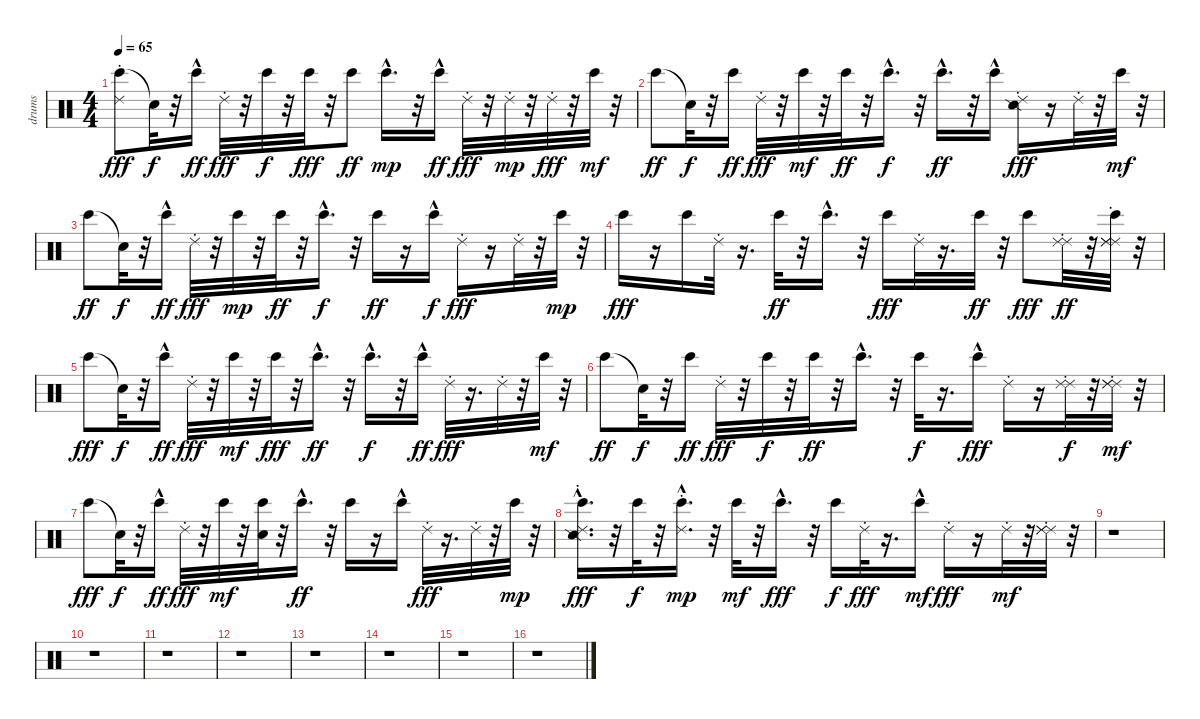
\track ("drums" "drums") {instrument percussion}
\staff {score}
\articulation defaults
\ts (4 4)
\tempo 65
\clef neutral
\ks c
("Bongo High (hit)" "Ride (choke) 2").8{dy fff} "Snare (hit)"{t}.32{dy f} r.32 "Bongo High (hit)"{hac}.16{dy ff} "Ride (choke) 2".32{dy fff} r.32 "Bongo High (hit)".32{dy f} r.32 "Bongo High (hit)".32{dy fff} r.32 "Bongo High (hit)".8{dy ff} "Bongo High (hit)"{hac}.16{d dy mp} r.32 "Bongo High (hit)"{hac}.16{dy ff} "Ride (choke) 2".32{dy fff} r.32 "Ride (choke) 2".32{dy mp} r.32 "Ride (choke) 2".32{dy fff} r.32 "Bongo High (hit)".32{dy mf} r.32 |
"Bongo High (hit)".8{dy ff} "Snare (hit)"{t}.32{dy f} r.32 "Bongo High (hit)".16{dy ff} "Ride (choke) 2".32{dy fff} r.32 "Bongo High (hit)".32{dy mf} r.32 "Bongo High (hit)".32{dy ff} r.32 "Bongo High (hit)"{hac}.16{d dy f} r.32 "Bongo High (hit)"{hac}.16{d dy ff} r.32 "Bongo High (hit)"{hac}.16 ("Snare (side stick) 2" "Ride (choke) 2").16{dy fff} r.16 "Ride (choke) 2".32 r.32 "Bongo High (hit)".32{dy mf} r.32 |
"Bongo High (hit)".8{dy ff} "Snare (hit)"{t}.32{dy f} r.32 "Bongo High (hit)"{hac}.16{dy ff} "Ride (choke) 2".32{dy fff} r.32 "Bongo High (hit)".32{dy mp} r.32 "Bongo High (hit)".32{dy ff} r.32 "Bongo High (hit)"{hac}.16{d dy f} r.32 "Bongo High (hit)".16{dy ff} r.16 "Bongo High (hit)"{hac}.16{dy f} "Ride (choke) 2".16{dy fff} r.16 "Ride (choke) 2".32 r.32 "Bongo High (hit)".32{dy mp} r.32 |
"Bongo High (hit)".16{dy fff} r.16 "Bongo High (hit)".16 "Ride (choke) 2".32 r.16{d} "Bongo High (hit)".32{dy ff} r.32 "Bongo High (hit)"{hac}.16{d} r.32 "Bongo High (hit)".16{dy fff} "Ride (choke) 2".32 r.16{d} "Bongo High (hit)".32{dy ff} r.32 "Bongo High (hit)".8{dy fff} ("Ride (choke) 2" "Ride (choke) 2").32{dy ff} r.32 ("Bongo High (hit)" "Ride (choke) 2" "Ride (choke) 2" "Ride (choke) 2").32 r.32 |
"Bongo High (hit)".8{dy fff} "Snare (hit)"{t}.32{dy f} r.32 "Bongo High (hit)"{hac}.16{dy ff} "Ride (choke) 2".32{dy fff} r.32 "Bongo High (hit)".32{dy mf} r.32 "Bongo High (hit)".32{dy fff} r.32 "Bongo High (hit)"{hac}.16{d dy ff} r.32 "Bongo High (hit)"{hac}.16{d dy f} r.32 "Bongo High (hit)"{hac}.16{dy ff} "Ride (choke) 2".32{dy fff} r.16{d} "Ride (choke) 2".32 r.32 "Bongo High (hit)".32{dy mf} r.32 |
"Bongo High (hit)".8{dy ff} "Snare (hit)"{t}.32{dy f} r.32 "Bongo High (hit)".16{dy ff} "Ride (choke) 2".32{dy fff} r.32 "Bongo High (hit)".32{dy f} r.32 "Bongo High (hit)".32{dy ff} r.32 "Bongo High (hit)"{hac}.16{d} r.32 "Bongo High (hit)".32{dy f} r.16{d} "Bongo High (hit)"{hac}.16{dy fff} "Ride (choke) 2".16 r.16 ("Ride (choke) 2" "Ride (choke) 2").32{dy f} r.32 ("Ride (choke) 2" "Ride (choke) 2" "Ride (choke) 2").32{dy mf} r.32 |
"Bongo High (hit)".8{dy fff} "Snare (hit)"{t}.32{dy f} r.32 "Bongo High (hit)"{hac}.16{dy ff} "Ride (choke) 2".32{dy fff} r.32 "Bongo High (hit)".32{dy mf} r.32 ("Snare (hit)" "Bongo High (hit)").32 r.32 "Bongo High (hit)"{hac}.16{d dy ff} r.32 "Bongo High (hit)".16 r.16 "Bongo High (hit)"{hac}.16 "Ride (choke) 2".32{dy fff} r.16{d} "Ride (choke) 2".32 r.32 "Bongo High (hit)".32{dy mp} r.32 |
("Snare (side stick) 2" "Bongo High (hit)"{hac} "Ride (choke) 2"{hac}).16{d dy fff} r.32 "Bongo High (hit)".32{dy f} r.32 ("Ride (choke) 2" "Bongo High (hit)"{hac}).16{d dy mp} r.32 "Bongo High (hit)".32{dy mf} r.32 "Bongo High (hit)"{hac}.16{d dy fff} r.32 "Bongo High (hit)".16{dy f} "Ride (choke) 2".32{dy fff} r.16{d} "Bongo High (hit)"{hac}.16{dy mf} "Ride (choke) 2".16{dy fff} r.16 "Ride (choke) 2".32{dy mf} r.32 ("Ride (choke) 2" "Ride (choke) 2" "Ride (choke) 2").32 r.32 |
r.1 |
r.1 |
r.1 |
r.1 |
r.1 |
r.1 |
r.1 |
r.1
